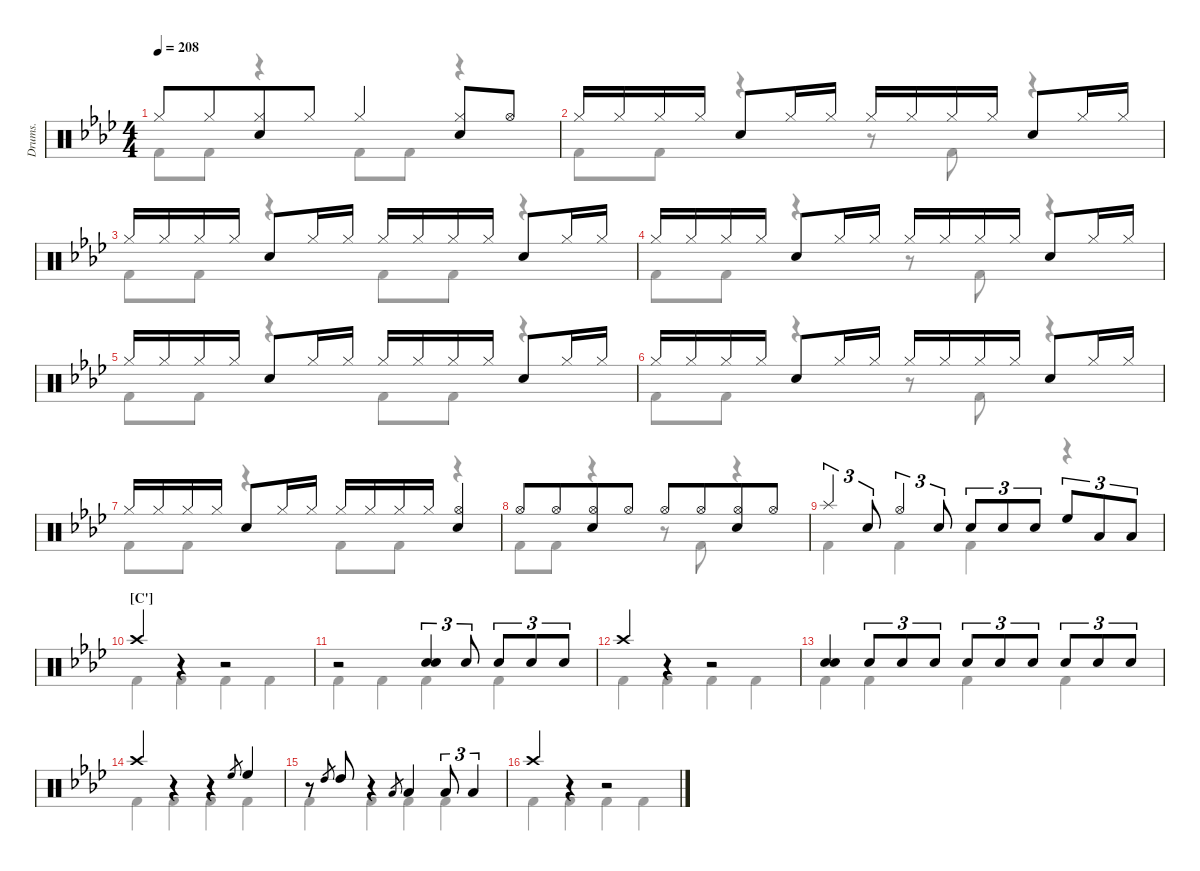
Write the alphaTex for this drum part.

\defaultSystemsLayout 4
\hideDynamics
\otherSystemsTrackNameOrientation horizontal
\track ("Drumkit" "Drums.") {defaultSystemsLayout 4 instrument percussion}
\staff {score}
\articulation defaults
\voice
\ts (4 4)
\tempo 208
\clef neutral
\ks fminor "Hi-Hat (closed)"{acc forcenatural}.8{dy mf} "Hi-Hat (closed)"{acc forcenatural}.8{beam merge}
("Hi-Hat (closed)"{acc forcenatural} "Snare (hit) 2"{acc forcenatural}).8 "Hi-Hat (closed)"{acc forcenatural}.8 "Hi-Hat (closed)"{acc forcenatural}.4 ("Hi-Hat (closed)"{acc forcenatural} "Snare (hit) 2"{acc forcenatural}).8 "Hi-Hat (open)"{acc forcenatural}.8 |
"Hi-Hat (closed)"{acc forcenatural}.16 "Hi-Hat (closed)"{acc forcenatural}.16 "Hi-Hat (closed)"{acc forcenatural}.16 "Hi-Hat (closed)"{acc forcenatural}.16 "Snare (hit) 2"{acc forcenatural}.8 "Hi-Hat (closed)"{acc forcenatural}.16 "Hi-Hat (closed)"{acc forcenatural}.16 "Hi-Hat (closed)"{acc forcenatural}.16 "Hi-Hat (closed)"{acc forcenatural}.16 "Hi-Hat (closed)"{acc forcenatural}.16 "Hi-Hat (closed)"{acc forcenatural}.16 "Snare (hit) 2"{acc forcenatural}.8 "Hi-Hat (closed)"{acc forcenatural}.16 "Hi-Hat (closed)"{acc forcenatural}.16 |
"Hi-Hat (closed)"{acc forcenatural}.16 "Hi-Hat (closed)"{acc forcenatural}.16 "Hi-Hat (closed)"{acc forcenatural}.16 "Hi-Hat (closed)"{acc forcenatural}.16 "Snare (hit) 2"{acc forcenatural}.8 "Hi-Hat (closed)"{acc forcenatural}.16 "Hi-Hat (closed)"{acc forcenatural}.16 "Hi-Hat (closed)"{acc forcenatural}.16 "Hi-Hat (closed)"{acc forcenatural}.16 "Hi-Hat (closed)"{acc forcenatural}.16 "Hi-Hat (closed)"{acc forcenatural}.16 "Snare (hit) 2"{acc forcenatural}.8 "Hi-Hat (closed)"{acc forcenatural}.16 "Hi-Hat (closed)"{acc forcenatural}.16 |
"Hi-Hat (closed)"{acc forcenatural}.16 "Hi-Hat (closed)"{acc forcenatural}.16 "Hi-Hat (closed)"{acc forcenatural}.16 "Hi-Hat (closed)"{acc forcenatural}.16 "Snare (hit) 2"{acc forcenatural}.8 "Hi-Hat (closed)"{acc forcenatural}.16 "Hi-Hat (closed)"{acc forcenatural}.16 "Hi-Hat (closed)"{acc forcenatural}.16 "Hi-Hat (closed)"{acc forcenatural}.16 "Hi-Hat (closed)"{acc forcenatural}.16 "Hi-Hat (closed)"{acc forcenatural}.16 "Snare (hit) 2"{acc forcenatural}.8 "Hi-Hat (closed)"{acc forcenatural}.16 "Hi-Hat (closed)"{acc forcenatural}.16 |
"Hi-Hat (closed)"{acc forcenatural}.16 "Hi-Hat (closed)"{acc forcenatural}.16 "Hi-Hat (closed)"{acc forcenatural}.16 "Hi-Hat (closed)"{acc forcenatural}.16 "Snare (hit) 2"{acc forcenatural}.8 "Hi-Hat (closed)"{acc forcenatural}.16 "Hi-Hat (closed)"{acc forcenatural}.16 "Hi-Hat (closed)"{acc forcenatural}.16 "Hi-Hat (closed)"{acc forcenatural}.16 "Hi-Hat (closed)"{acc forcenatural}.16 "Hi-Hat (closed)"{acc forcenatural}.16 "Snare (hit) 2"{acc forcenatural}.8 "Hi-Hat (closed)"{acc forcenatural}.16 "Hi-Hat (closed)"{acc forcenatural}.16 |
"Hi-Hat (closed)"{acc forcenatural}.16 "Hi-Hat (closed)"{acc forcenatural}.16 "Hi-Hat (closed)"{acc forcenatural}.16 "Hi-Hat (closed)"{acc forcenatural}.16 "Snare (hit) 2"{acc forcenatural}.8 "Hi-Hat (closed)"{acc forcenatural}.16 "Hi-Hat (closed)"{acc forcenatural}.16 "Hi-Hat (closed)"{acc forcenatural}.16 "Hi-Hat (closed)"{acc forcenatural}.16 "Hi-Hat (closed)"{acc forcenatural}.16 "Hi-Hat (closed)"{acc forcenatural}.16 "Snare (hit) 2"{acc forcenatural}.8 "Hi-Hat (closed)"{acc forcenatural}.16 "Hi-Hat (closed)"{acc forcenatural}.16 |
"Hi-Hat (closed)"{acc forcenatural}.16 "Hi-Hat (closed)"{acc forcenatural}.16 "Hi-Hat (closed)"{acc forcenatural}.16 "Hi-Hat (closed)"{acc forcenatural}.16 "Snare (hit) 2"{acc forcenatural}.8 "Hi-Hat (closed)"{acc forcenatural}.16 "Hi-Hat (closed)"{acc forcenatural}.16 "Hi-Hat (closed)"{acc forcenatural}.16 "Hi-Hat (closed)"{acc forcenatural}.16 "Hi-Hat (closed)"{acc forcenatural}.16 "Hi-Hat (closed)"{acc forcenatural}.16 ("Snare (hit) 2"{acc forcenatural} "Hi-Hat (open)"{acc forcenatural}).4 |
"Hi-Hat (open)"{acc forcenatural}.8 "Hi-Hat (open)"{acc forcenatural}.8{beam merge} ("Hi-Hat (open)"{acc forcenatural} "Snare (hit) 2"{acc forcenatural}).8 "Hi-Hat (open)"{acc forcenatural}.8 "Hi-Hat (open)"{acc forcenatural}.8 "Hi-Hat (open)"{acc forcenatural}.8{beam merge} ("Hi-Hat (open)"{acc forcenatural} "Snare (hit) 2"{acc forcenatural}).8 "Hi-Hat (open)"{acc forcenatural}.8 |
"Splash (hit)"{acc forcenatural}.4{tu (3 2)} "Snare (hit) 2"{acc forcenatural}.8{tu (3 2)} "Hi-Hat (open)"{acc forcenatural}.4{tu (3 2)} "Snare (hit) 2"{acc forcenatural}.8{tu (3 2)} "Snare (hit) 2"{acc forcenatural}.8{tu (3 2)} "Snare (hit) 2"{acc forcenatural}.8{tu (3 2)} "Snare (hit) 2"{acc forcenatural}.8{tu (3 2)} "High Floor Tom (hit)"{acc forcenatural}.8{tu (3 2)} "Low Tom (hit)"{acc forcenatural}.8{tu (3 2)} "Low Tom (hit)"{acc forcenatural}.8{tu (3 2)} |
\section ("C'" "")
"Crash high (hit)"{acc forcenatural}.4 r.4 r.2 |
r.2 ("Snare (hit) 2"{acc forcenatural} "Snare (hit) 2"{acc forcenatural}).4{tu (3 2)} "Snare (hit) 2"{acc forcenatural}.8{tu (3 2)} "Snare (hit) 2"{acc forcenatural}.8{tu (3 2)} "Snare (hit) 2"{acc forcenatural}.8{tu (3 2)} "Snare (hit) 2"{acc forcenatural}.8{tu (3 2)} |
"Crash high (hit)"{acc forcenatural}.4 r.4 r.2 |
("Snare (hit) 2"{acc forcenatural} "Snare (hit) 2"{acc forcenatural}).4 "Snare (hit) 2"{acc forcenatural}.8{tu (3 2)} "Snare (hit) 2"{acc forcenatural}.8{tu (3 2)} "Snare (hit) 2"{acc forcenatural}.8{tu (3 2)} "Snare (hit) 2"{acc forcenatural}.8{tu (3 2)} "Snare (hit) 2"{acc forcenatural}.8{tu (3 2)} "Snare (hit) 2"{acc forcenatural}.8{tu (3 2)} "Snare (hit) 2"{acc forcenatural}.8{tu (3 2)} "Snare (hit) 2"{acc forcenatural}.8{tu (3 2)} "Snare (hit) 2"{acc forcenatural}.8{tu (3 2)} |
"Crash high (hit)"{acc forcenatural}.4 r.4 r.4 "High Floor Tom (hit)"{acc forcenatural}.8{gr} "High Floor Tom (hit)"{acc forcenatural}.4 |
r.8 "High Tom (hit)"{acc forcenatural}.8{gr} "High Tom (hit)"{acc forcenatural}.8 r.4 "Low Tom (hit)"{acc forcenatural}.8{gr} "Low Tom (hit)"{acc forcenatural}.4 "Low Tom (hit)"{acc forcenatural}.8{tu (3 2)} "Low Tom (hit)"{acc forcenatural}.4{tu (3 2)} |
"Crash high (hit)"{acc forcenatural}.4 r.4 r.2
\voice
\clef neutral
\ottava regular
\simile none
\ks fminor "Kick (hit) 2"{acc forcenatural}.8{dy mf} "Kick (hit) 2"{acc forcenatural}.8
r.4 "Kick (hit) 2"{acc forcenatural}.8 "Kick (hit) 2"{acc forcenatural}.8 r.4 |
"Kick (hit) 2"{acc forcenatural}.8 "Kick (hit) 2"{acc forcenatural}.8 r.4 r.8 "Kick (hit) 2"{acc forcenatural}.8 r.4 |
"Kick (hit) 2"{acc forcenatural}.8 "Kick (hit) 2"{acc forcenatural}.8 r.4 "Kick (hit) 2"{acc forcenatural}.8 "Kick (hit) 2"{acc forcenatural}.8 r.4 |
"Kick (hit) 2"{acc forcenatural}.8 "Kick (hit) 2"{acc forcenatural}.8 r.4 r.8 "Kick (hit) 2"{acc forcenatural}.8 r.4 |
"Kick (hit) 2"{acc forcenatural}.8 "Kick (hit) 2"{acc forcenatural}.8 r.4 "Kick (hit) 2"{acc forcenatural}.8 "Kick (hit) 2"{acc forcenatural}.8 r.4 |
"Kick (hit) 2"{acc forcenatural}.8 "Kick (hit) 2"{acc forcenatural}.8 r.4 r.8 "Kick (hit) 2"{acc forcenatural}.8 r.4 |
"Kick (hit) 2"{acc forcenatural}.8 "Kick (hit) 2"{acc forcenatural}.8 r.4 "Kick (hit) 2"{acc forcenatural}.8 "Kick (hit) 2"{acc forcenatural}.8 r.4 |
"Kick (hit) 2"{acc forcenatural}.8 "Kick (hit) 2"{acc forcenatural}.8 r.4 r.8 "Kick (hit) 2"{acc forcenatural}.8 r.4 |
"Kick (hit) 2"{acc forcenatural}.4 "Kick (hit) 2"{acc forcenatural}.4 "Kick (hit) 2"{acc forcenatural}.4 r.4 |
"Kick (hit) 2"{acc forcenatural}.4 "Kick (hit) 2"{acc forcenatural}.4 "Kick (hit) 2"{acc forcenatural}.4 "Kick (hit) 2"{acc forcenatural}.4 |
"Kick (hit) 2"{acc forcenatural}.4 "Kick (hit) 2"{acc forcenatural}.4 "Kick (hit) 2"{acc forcenatural}.4 "Kick (hit) 2"{acc forcenatural}.4 |
"Kick (hit) 2"{acc forcenatural}.4 "Kick (hit) 2"{acc forcenatural}.4 "Kick (hit) 2"{acc forcenatural}.4 "Kick (hit) 2"{acc forcenatural}.4 |
"Kick (hit) 2"{acc forcenatural}.4 "Kick (hit) 2"{acc forcenatural}.4 "Kick (hit) 2"{acc forcenatural}.4 "Kick (hit) 2"{acc forcenatural}.4 |
"Kick (hit) 2"{acc forcenatural}.4 "Kick (hit) 2"{acc forcenatural}.4 "Kick (hit) 2"{acc forcenatural}.4 "Kick (hit) 2"{acc forcenatural}.4 |
"Kick (hit) 2"{acc forcenatural}.4 "Kick (hit) 2"{acc forcenatural}.4 "Kick (hit) 2"{acc forcenatural}.4 "Kick (hit) 2"{acc forcenatural}.4 |
"Kick (hit) 2"{acc forcenatural}.4 "Kick (hit) 2"{acc forcenatural}.4 "Kick (hit) 2"{acc forcenatural}.4 "Kick (hit) 2"{acc forcenatural}.4
